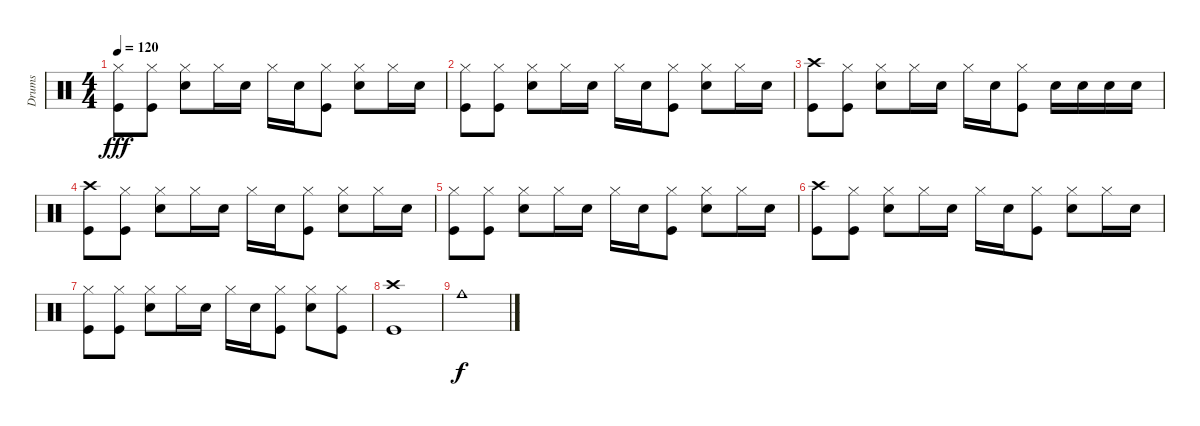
\track ("Drums" "Drums") {instrument percussion}
\staff {score}
\articulation defaults
\ts (4 4)
\tempo 120
\clef neutral
\ks c
("Hi-Hat (closed)" "Kick (hit)").8{dy fff} ("Hi-Hat (closed)" "Kick (hit)").8 ("Hi-Hat (closed)" "Snare (hit) 2").8 "Hi-Hat (closed)".16 "Snare (hit) 2".16 "Hi-Hat (closed)".16 "Snare (hit) 2".16 ("Hi-Hat (closed)" "Kick (hit)").8 ("Hi-Hat (closed)" "Snare (hit) 2").8 "Hi-Hat (closed)".16 "Snare (hit) 2".16 |
("Hi-Hat (closed)" "Kick (hit)").8 ("Hi-Hat (closed)" "Kick (hit)").8 ("Hi-Hat (closed)" "Snare (hit) 2").8 "Hi-Hat (closed)".16 "Snare (hit) 2".16 "Hi-Hat (closed)".16 "Snare (hit) 2".16 ("Hi-Hat (closed)" "Kick (hit)").8 ("Hi-Hat (closed)" "Snare (hit) 2").8 "Hi-Hat (closed)".16 "Snare (hit) 2".16 |
("Crash high (hit)" "Kick (hit)").8 ("Hi-Hat (closed)" "Kick (hit)").8 ("Hi-Hat (closed)" "Snare (hit) 2").8 "Hi-Hat (closed)".16 "Snare (hit) 2".16 "Hi-Hat (closed)".16 "Snare (hit) 2".16 ("Hi-Hat (closed)" "Kick (hit)").8 "Snare (hit) 2".16 "Snare (hit) 2".16 "Snare (hit) 2".16 "Snare (hit) 2".16 |
("Crash high (hit)" "Kick (hit)").8 ("Hi-Hat (closed)" "Kick (hit)").8 ("Hi-Hat (closed)" "Snare (hit) 2").8 "Hi-Hat (closed)".16 "Snare (hit) 2".16 "Hi-Hat (closed)".16 "Snare (hit) 2".16 ("Hi-Hat (closed)" "Kick (hit)").8 ("Hi-Hat (closed)" "Snare (hit) 2").8 "Hi-Hat (closed)".16 "Snare (hit) 2".16 |
("Hi-Hat (closed)" "Kick (hit)").8 ("Hi-Hat (closed)" "Kick (hit)").8 ("Hi-Hat (closed)" "Snare (hit) 2").8 "Hi-Hat (closed)".16 "Snare (hit) 2".16 "Hi-Hat (closed)".16 "Snare (hit) 2".16 ("Hi-Hat (closed)" "Kick (hit)").8 ("Hi-Hat (closed)" "Snare (hit) 2").8 "Hi-Hat (closed)".16 "Snare (hit) 2".16 |
("Crash high (hit)" "Kick (hit)").8 ("Hi-Hat (closed)" "Kick (hit)").8 ("Hi-Hat (closed)" "Snare (hit) 2").8 "Hi-Hat (closed)".16 "Snare (hit) 2".16 "Hi-Hat (closed)".16 "Snare (hit) 2".16 ("Hi-Hat (closed)" "Kick (hit)").8 ("Hi-Hat (closed)" "Snare (hit) 2").8 "Hi-Hat (closed)".16 "Snare (hit) 2".16 |
("Hi-Hat (closed)" "Kick (hit)").8 ("Hi-Hat (closed)" "Kick (hit)").8 ("Hi-Hat (closed)" "Snare (hit) 2").8 "Hi-Hat (closed)".16 "Snare (hit) 2".16 "Hi-Hat (closed)".16 "Snare (hit) 2".16 ("Hi-Hat (closed)" "Kick (hit)").8 ("Hi-Hat (closed)" "Snare (hit) 2").8 ("Hi-Hat (closed)" "Kick (hit)").8 |
("Crash high (hit)" "Kick (hit)").1 |
"Cowbell medium (hit)".1{dy f}
